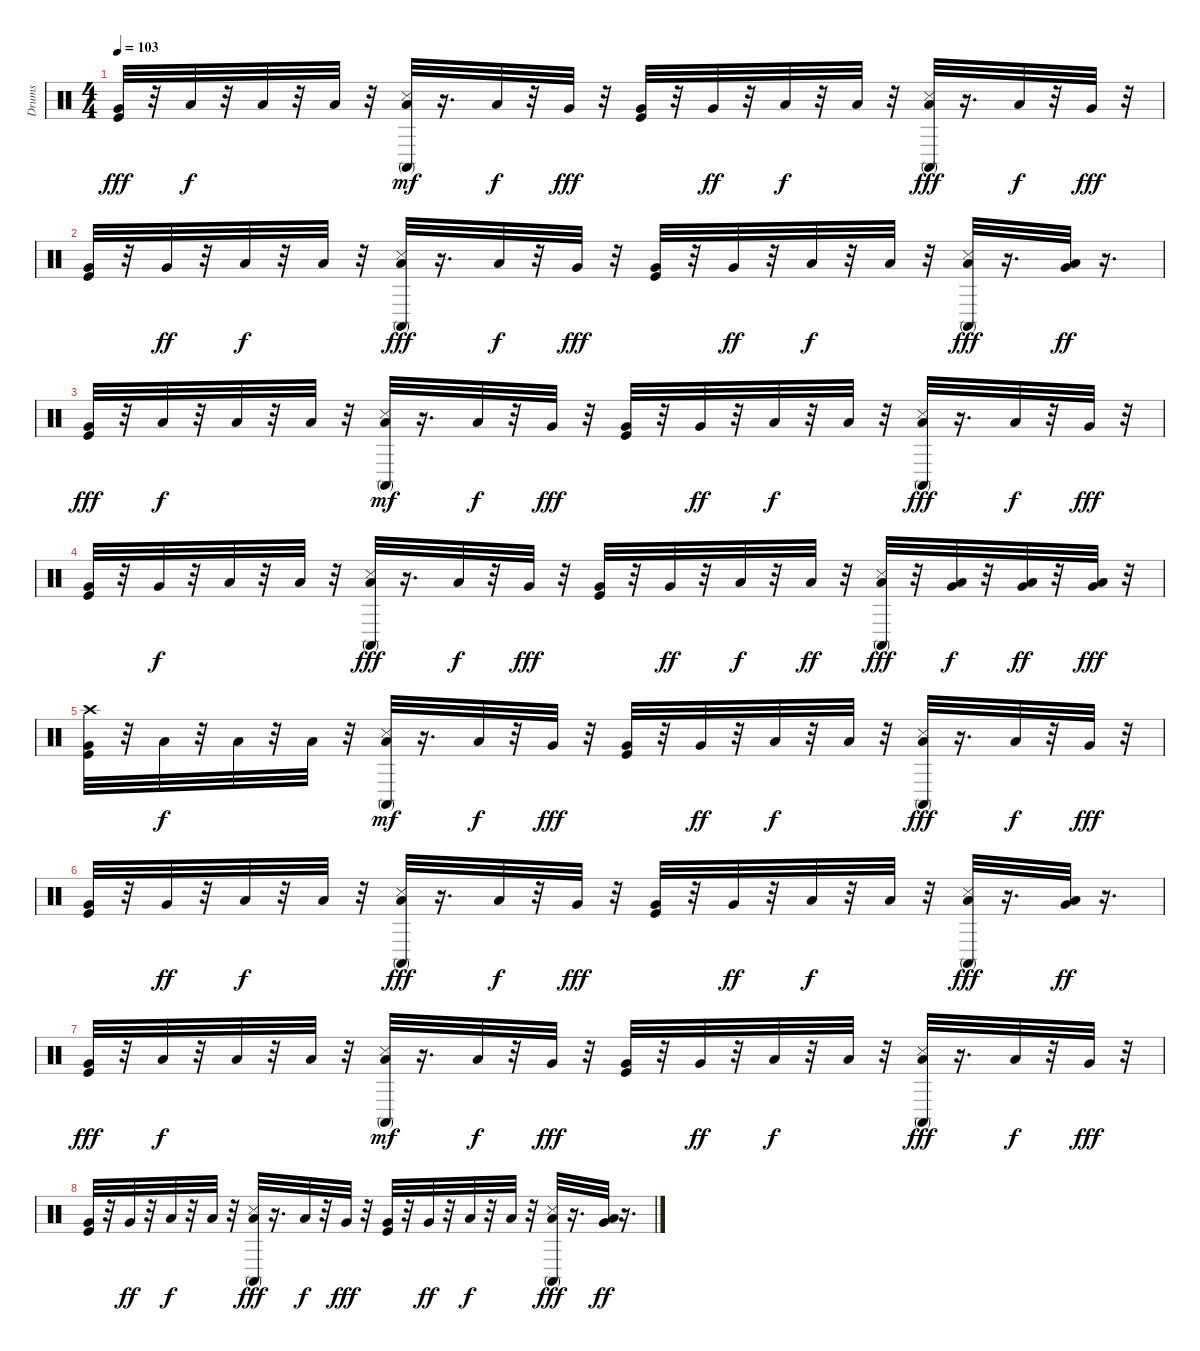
\track ("Drums" "Drums") {instrument percussion}
\staff {score}
\articulation defaults
\ts (4 4)
\tempo 103
\clef neutral
\ks c
("Very Low Tom (hit)" "Kick (hit)").32{dy fff} r.32 "Low Floor Tom (hit)".32{dy f} r.32 "Low Floor Tom (hit)".32 r.32 "Low Floor Tom (hit)".32 r.32 ("Conga high (mute)" "Snare (side stick) 3" "Low Floor Tom (hit)").32{dy mf} r.16{d} "Low Floor Tom (hit)".32{dy f} r.32 "Very Low Tom (hit)".32{dy fff} r.32 ("Very Low Tom (hit)" "Kick (hit)").32 r.32 "Very Low Tom (hit)".32{dy ff} r.32 "Low Floor Tom (hit)".32{dy f} r.32 "Low Floor Tom (hit)".32 r.32 ("Conga high (mute)" "Low Floor Tom (hit)" "Snare (side stick) 3").32{dy fff} r.16{d} "Low Floor Tom (hit)".32{dy f} r.32 "Very Low Tom (hit)".32{dy fff} r.32 |
("Very Low Tom (hit)" "Kick (hit)").32 r.32 "Very Low Tom (hit)".32{dy ff} r.32 "Low Floor Tom (hit)".32{dy f} r.32 "Low Floor Tom (hit)".32 r.32 ("Conga high (mute)" "Low Floor Tom (hit)" "Snare (side stick) 3").32{dy fff} r.16{d} "Low Floor Tom (hit)".32{dy f} r.32 "Very Low Tom (hit)".32{dy fff} r.32 ("Very Low Tom (hit)" "Kick (hit)").32 r.32 "Very Low Tom (hit)".32{dy ff} r.32 "Low Floor Tom (hit)".32{dy f} r.32 "Low Floor Tom (hit)".32 r.32 ("Conga high (mute)" "Low Floor Tom (hit)" "Snare (side stick) 3").32{dy fff} r.16{d} ("Low Floor Tom (hit)" "Very Low Tom (hit)").32{dy ff} r.16{d} |
("Very Low Tom (hit)" "Kick (hit)").32{dy fff} r.32 "Low Floor Tom (hit)".32{dy f} r.32 "Low Floor Tom (hit)".32 r.32 "Low Floor Tom (hit)".32 r.32 ("Conga high (mute)" "Snare (side stick) 3" "Low Floor Tom (hit)").32{dy mf} r.16{d} "Low Floor Tom (hit)".32{dy f} r.32 "Very Low Tom (hit)".32{dy fff} r.32 ("Very Low Tom (hit)" "Kick (hit)").32 r.32 "Very Low Tom (hit)".32{dy ff} r.32 "Low Floor Tom (hit)".32{dy f} r.32 "Low Floor Tom (hit)".32 r.32 ("Conga high (mute)" "Low Floor Tom (hit)" "Snare (side stick) 3").32{dy fff} r.16{d} "Low Floor Tom (hit)".32{dy f} r.32 "Very Low Tom (hit)".32{dy fff} r.32 |
("Very Low Tom (hit)" "Kick (hit)").32 r.32 "Very Low Tom (hit)".32{dy f} r.32 "Low Floor Tom (hit)".32 r.32 "Low Floor Tom (hit)".32 r.32 ("Conga high (mute)" "Low Floor Tom (hit)" "Snare (side stick) 3").32{dy fff} r.16{d} "Low Floor Tom (hit)".32{dy f} r.32 "Very Low Tom (hit)".32{dy fff} r.32 ("Very Low Tom (hit)" "Kick (hit)").32 r.32 "Very Low Tom (hit)".32{dy ff} r.32 "Low Floor Tom (hit)".32{dy f} r.32 "Low Floor Tom (hit)".32{dy ff} r.32 ("Conga high (mute)" "Low Floor Tom (hit)" "Snare (side stick) 3").32{dy fff} r.32 ("Very Low Tom (hit)" "Low Floor Tom (hit)").32{dy f} r.32 ("Very Low Tom (hit)" "Low Floor Tom (hit)").32{dy ff} r.32 ("Very Low Tom (hit)" "Low Floor Tom (hit)").32{dy fff} r.32 |
("Crash high (hit)" "Very Low Tom (hit)" "Kick (hit)").32 r.32 "Low Floor Tom (hit)".32{dy f} r.32 "Low Floor Tom (hit)".32 r.32 "Low Floor Tom (hit)".32 r.32 ("Conga high (mute)" "Snare (side stick) 3" "Low Floor Tom (hit)").32{dy mf} r.16{d} "Low Floor Tom (hit)".32{dy f} r.32 "Very Low Tom (hit)".32{dy fff} r.32 ("Very Low Tom (hit)" "Kick (hit)").32 r.32 "Very Low Tom (hit)".32{dy ff} r.32 "Low Floor Tom (hit)".32{dy f} r.32 "Low Floor Tom (hit)".32 r.32 ("Conga high (mute)" "Low Floor Tom (hit)" "Snare (side stick) 3").32{dy fff} r.16{d} "Low Floor Tom (hit)".32{dy f} r.32 "Very Low Tom (hit)".32{dy fff} r.32 |
("Very Low Tom (hit)" "Kick (hit)").32 r.32 "Very Low Tom (hit)".32{dy ff} r.32 "Low Floor Tom (hit)".32{dy f} r.32 "Low Floor Tom (hit)".32 r.32 ("Conga high (mute)" "Low Floor Tom (hit)" "Snare (side stick) 3").32{dy fff} r.16{d} "Low Floor Tom (hit)".32{dy f} r.32 "Very Low Tom (hit)".32{dy fff} r.32 ("Very Low Tom (hit)" "Kick (hit)").32 r.32 "Very Low Tom (hit)".32{dy ff} r.32 "Low Floor Tom (hit)".32{dy f} r.32 "Low Floor Tom (hit)".32 r.32 ("Conga high (mute)" "Low Floor Tom (hit)" "Snare (side stick) 3").32{dy fff} r.16{d} ("Low Floor Tom (hit)" "Very Low Tom (hit)").32{dy ff} r.16{d} |
("Very Low Tom (hit)" "Kick (hit)").32{dy fff} r.32 "Low Floor Tom (hit)".32{dy f} r.32 "Low Floor Tom (hit)".32 r.32 "Low Floor Tom (hit)".32 r.32 ("Conga high (mute)" "Snare (side stick) 3" "Low Floor Tom (hit)").32{dy mf} r.16{d} "Low Floor Tom (hit)".32{dy f} r.32 "Very Low Tom (hit)".32{dy fff} r.32 ("Very Low Tom (hit)" "Kick (hit)").32 r.32 "Very Low Tom (hit)".32{dy ff} r.32 "Low Floor Tom (hit)".32{dy f} r.32 "Low Floor Tom (hit)".32 r.32 ("Conga high (mute)" "Low Floor Tom (hit)" "Snare (side stick) 3").32{dy fff} r.16{d} "Low Floor Tom (hit)".32{dy f} r.32 "Very Low Tom (hit)".32{dy fff} r.32 |
("Very Low Tom (hit)" "Kick (hit)").32 r.32 "Very Low Tom (hit)".32{dy ff} r.32 "Low Floor Tom (hit)".32{dy f} r.32 "Low Floor Tom (hit)".32 r.32 ("Conga high (mute)" "Low Floor Tom (hit)" "Snare (side stick) 3").32{dy fff} r.16{d} "Low Floor Tom (hit)".32{dy f} r.32 "Very Low Tom (hit)".32{dy fff} r.32 ("Very Low Tom (hit)" "Kick (hit)").32 r.32 "Very Low Tom (hit)".32{dy ff} r.32 "Low Floor Tom (hit)".32{dy f} r.32 "Low Floor Tom (hit)".32 r.32 ("Conga high (mute)" "Low Floor Tom (hit)" "Snare (side stick) 3").32{dy fff} r.16{d} ("Low Floor Tom (hit)" "Very Low Tom (hit)").32{dy ff} r.16{d}
